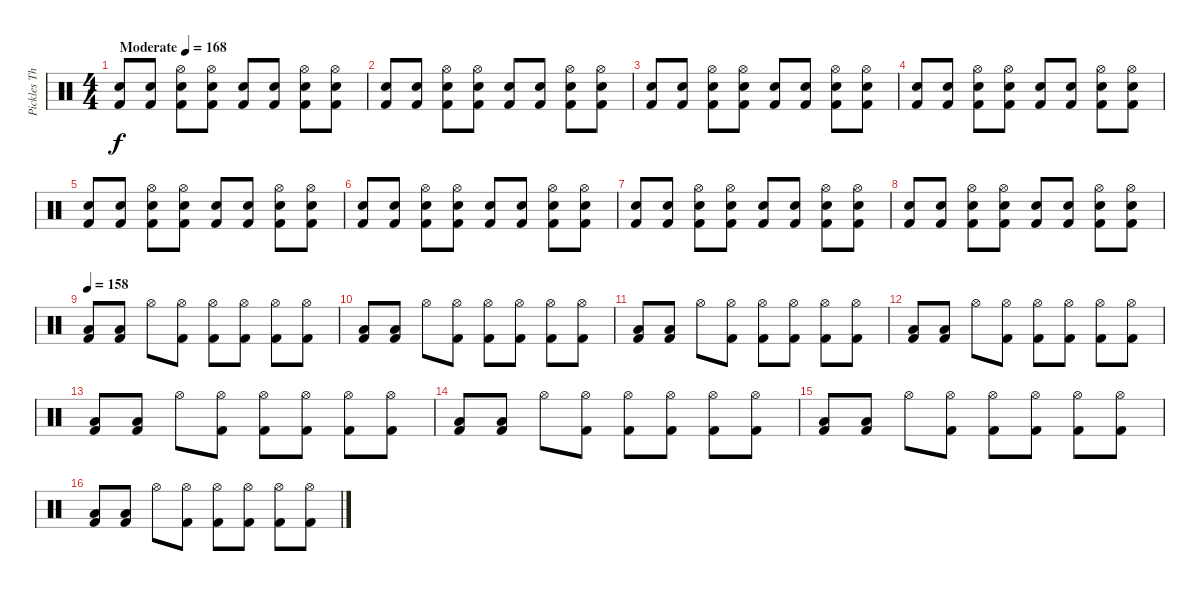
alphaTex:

\track ("Pickles The Drummer" "Pickles Th") {instrument percussion}
\staff {score}
\articulation defaults
\ts (4 4)
\tempo (168 "Moderate")
\clef neutral
\ks c
("Snare (hit) 2" "Kick (hit) 2").8{dy f} ("Snare (hit) 2" "Kick (hit) 2").8 ("Snare (hit) 2" "Kick (hit) 2" "Hi-Hat (open)").8 ("Snare (hit) 2" "Kick (hit) 2" "Hi-Hat (open)").8 ("Snare (hit) 2" "Kick (hit) 2").8 ("Snare (hit) 2" "Kick (hit) 2").8 ("Snare (hit) 2" "Kick (hit) 2" "Hi-Hat (open)").8 ("Snare (hit) 2" "Kick (hit) 2" "Hi-Hat (open)").8 |
("Snare (hit) 2" "Kick (hit) 2").8 ("Snare (hit) 2" "Kick (hit) 2").8 ("Snare (hit) 2" "Kick (hit) 2" "Hi-Hat (open)").8 ("Snare (hit) 2" "Kick (hit) 2" "Hi-Hat (open)").8 ("Snare (hit) 2" "Kick (hit) 2").8 ("Snare (hit) 2" "Kick (hit) 2").8 ("Snare (hit) 2" "Kick (hit) 2" "Hi-Hat (open)").8 ("Snare (hit) 2" "Kick (hit) 2" "Hi-Hat (open)").8 |
("Snare (hit) 2" "Kick (hit) 2").8 ("Snare (hit) 2" "Kick (hit) 2").8 ("Snare (hit) 2" "Kick (hit) 2" "Hi-Hat (open)").8 ("Snare (hit) 2" "Kick (hit) 2" "Hi-Hat (open)").8 ("Snare (hit) 2" "Kick (hit) 2").8 ("Snare (hit) 2" "Kick (hit) 2").8 ("Snare (hit) 2" "Kick (hit) 2" "Hi-Hat (open)").8 ("Snare (hit) 2" "Kick (hit) 2" "Hi-Hat (open)").8 |
("Snare (hit) 2" "Kick (hit) 2").8 ("Snare (hit) 2" "Kick (hit) 2").8 ("Snare (hit) 2" "Kick (hit) 2" "Hi-Hat (open)").8 ("Snare (hit) 2" "Kick (hit) 2" "Hi-Hat (open)").8 ("Snare (hit) 2" "Kick (hit) 2").8 ("Snare (hit) 2" "Kick (hit) 2").8 ("Snare (hit) 2" "Kick (hit) 2" "Hi-Hat (open)").8 ("Snare (hit) 2" "Kick (hit) 2" "Hi-Hat (open)").8 |
("Snare (hit) 2" "Kick (hit) 2").8 ("Snare (hit) 2" "Kick (hit) 2").8 ("Snare (hit) 2" "Kick (hit) 2" "Hi-Hat (open)").8 ("Snare (hit) 2" "Kick (hit) 2" "Hi-Hat (open)").8 ("Snare (hit) 2" "Kick (hit) 2").8 ("Snare (hit) 2" "Kick (hit) 2").8 ("Snare (hit) 2" "Kick (hit) 2" "Hi-Hat (open)").8 ("Snare (hit) 2" "Kick (hit) 2" "Hi-Hat (open)").8 |
("Snare (hit) 2" "Kick (hit) 2").8 ("Snare (hit) 2" "Kick (hit) 2").8 ("Snare (hit) 2" "Kick (hit) 2" "Hi-Hat (open)").8 ("Snare (hit) 2" "Kick (hit) 2" "Hi-Hat (open)").8 ("Snare (hit) 2" "Kick (hit) 2").8 ("Snare (hit) 2" "Kick (hit) 2").8 ("Snare (hit) 2" "Kick (hit) 2" "Hi-Hat (open)").8 ("Snare (hit) 2" "Kick (hit) 2" "Hi-Hat (open)").8 |
("Snare (hit) 2" "Kick (hit) 2").8 ("Snare (hit) 2" "Kick (hit) 2").8 ("Snare (hit) 2" "Kick (hit) 2" "Hi-Hat (open)").8 ("Snare (hit) 2" "Kick (hit) 2" "Hi-Hat (open)").8 ("Snare (hit) 2" "Kick (hit) 2").8 ("Snare (hit) 2" "Kick (hit) 2").8 ("Snare (hit) 2" "Kick (hit) 2" "Hi-Hat (open)").8 ("Snare (hit) 2" "Kick (hit) 2" "Hi-Hat (open)").8 |
("Snare (hit) 2" "Kick (hit) 2").8 ("Snare (hit) 2" "Kick (hit) 2").8 ("Snare (hit) 2" "Kick (hit) 2" "Hi-Hat (open)").8 ("Snare (hit) 2" "Kick (hit) 2" "Hi-Hat (open)").8 ("Snare (hit) 2" "Kick (hit) 2").8 ("Snare (hit) 2" "Kick (hit) 2").8 ("Snare (hit) 2" "Kick (hit) 2" "Hi-Hat (open)").8 ("Snare (hit) 2" "Kick (hit) 2" "Hi-Hat (open)").8 |
\tempo 158
("Low Floor Tom (hit)" "Kick (hit) 2").8 ("Low Floor Tom (hit)" "Kick (hit) 2").8 "Hi-Hat (open)".8 ("Kick (hit) 2" "Hi-Hat (open)").8 ("Kick (hit) 2" "Hi-Hat (open)").8 ("Kick (hit) 2" "Hi-Hat (open)").8 ("Kick (hit) 2" "Hi-Hat (open)").8 ("Kick (hit) 2" "Hi-Hat (open)").8 |
("Low Floor Tom (hit)" "Kick (hit) 2").8 ("Low Floor Tom (hit)" "Kick (hit) 2").8 "Hi-Hat (open)".8 ("Kick (hit) 2" "Hi-Hat (open)").8 ("Kick (hit) 2" "Hi-Hat (open)").8 ("Kick (hit) 2" "Hi-Hat (open)").8 ("Kick (hit) 2" "Hi-Hat (open)").8 ("Kick (hit) 2" "Hi-Hat (open)").8 |
("Low Floor Tom (hit)" "Kick (hit) 2").8 ("Low Floor Tom (hit)" "Kick (hit) 2").8 "Hi-Hat (open)".8 ("Kick (hit) 2" "Hi-Hat (open)").8 ("Kick (hit) 2" "Hi-Hat (open)").8 ("Kick (hit) 2" "Hi-Hat (open)").8 ("Kick (hit) 2" "Hi-Hat (open)").8 ("Kick (hit) 2" "Hi-Hat (open)").8 |
("Low Floor Tom (hit)" "Kick (hit) 2").8 ("Low Floor Tom (hit)" "Kick (hit) 2").8 "Hi-Hat (open)".8 ("Kick (hit) 2" "Hi-Hat (open)").8 ("Kick (hit) 2" "Hi-Hat (open)").8 ("Kick (hit) 2" "Hi-Hat (open)").8 ("Kick (hit) 2" "Hi-Hat (open)").8 ("Kick (hit) 2" "Hi-Hat (open)").8 |
("Low Floor Tom (hit)" "Kick (hit) 2").8 ("Low Floor Tom (hit)" "Kick (hit) 2").8 "Hi-Hat (open)".8 ("Kick (hit) 2" "Hi-Hat (open)").8 ("Kick (hit) 2" "Hi-Hat (open)").8 ("Kick (hit) 2" "Hi-Hat (open)").8 ("Kick (hit) 2" "Hi-Hat (open)").8 ("Kick (hit) 2" "Hi-Hat (open)").8 |
("Low Floor Tom (hit)" "Kick (hit) 2").8 ("Low Floor Tom (hit)" "Kick (hit) 2").8 "Hi-Hat (open)".8 ("Kick (hit) 2" "Hi-Hat (open)").8 ("Kick (hit) 2" "Hi-Hat (open)").8 ("Kick (hit) 2" "Hi-Hat (open)").8 ("Kick (hit) 2" "Hi-Hat (open)").8 ("Kick (hit) 2" "Hi-Hat (open)").8 |
("Low Floor Tom (hit)" "Kick (hit) 2").8 ("Low Floor Tom (hit)" "Kick (hit) 2").8 "Hi-Hat (open)".8 ("Kick (hit) 2" "Hi-Hat (open)").8 ("Kick (hit) 2" "Hi-Hat (open)").8 ("Kick (hit) 2" "Hi-Hat (open)").8 ("Kick (hit) 2" "Hi-Hat (open)").8 ("Kick (hit) 2" "Hi-Hat (open)").8 |
("Low Floor Tom (hit)" "Kick (hit) 2").8 ("Low Floor Tom (hit)" "Kick (hit) 2").8 "Hi-Hat (open)".8 ("Kick (hit) 2" "Hi-Hat (open)").8 ("Kick (hit) 2" "Hi-Hat (open)").8 ("Kick (hit) 2" "Hi-Hat (open)").8 ("Kick (hit) 2" "Hi-Hat (open)").8 ("Kick (hit) 2" "Hi-Hat (open)").8
